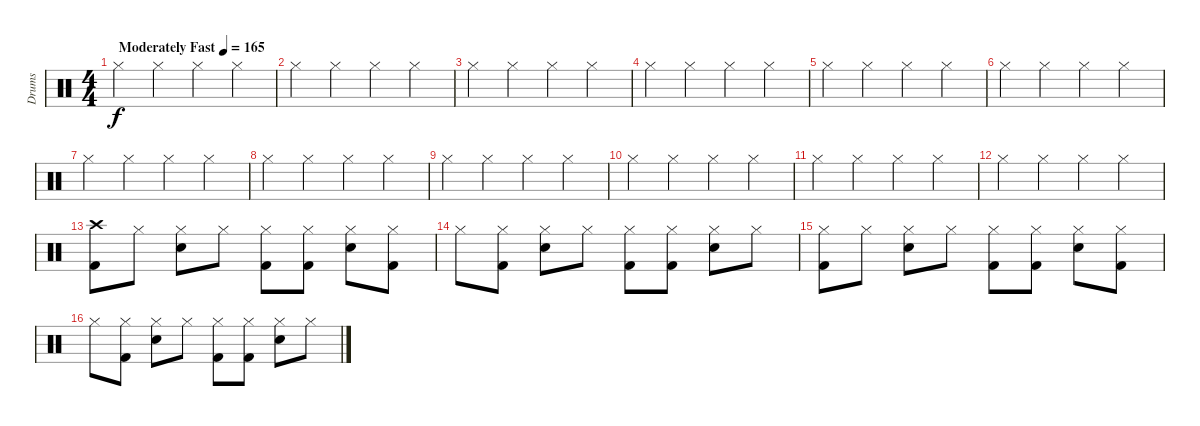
\track ("Drums" "Drums") {instrument percussion}
\staff {score}
\articulation defaults
\ts (4 4)
\tempo (165 "Moderately Fast")
\clef neutral
\ks c "Hi-Hat (closed)".4{dy f} "Hi-Hat (closed)".4 "Hi-Hat (closed)".4 "Hi-Hat (closed)".4
|
"Hi-Hat (closed)".4 "Hi-Hat (closed)".4 "Hi-Hat (closed)".4 "Hi-Hat (closed)".4 |
"Hi-Hat (closed)".4 "Hi-Hat (closed)".4 "Hi-Hat (closed)".4 "Hi-Hat (closed)".4 |
"Hi-Hat (closed)".4 "Hi-Hat (closed)".4 "Hi-Hat (closed)".4 "Hi-Hat (closed)".4 |
"Hi-Hat (closed)".4 "Hi-Hat (closed)".4 "Hi-Hat (closed)".4 "Hi-Hat (closed)".4 |
"Hi-Hat (closed)".4 "Hi-Hat (closed)".4 "Hi-Hat (closed)".4 "Hi-Hat (closed)".4 |
"Hi-Hat (closed)".4 "Hi-Hat (closed)".4 "Hi-Hat (closed)".4 "Hi-Hat (closed)".4 |
"Hi-Hat (closed)".4 "Hi-Hat (closed)".4 "Hi-Hat (closed)".4 "Hi-Hat (closed)".4 |
"Hi-Hat (closed)".4 "Hi-Hat (closed)".4 "Hi-Hat (closed)".4 "Hi-Hat (closed)".4 |
"Hi-Hat (closed)".4 "Hi-Hat (closed)".4 "Hi-Hat (closed)".4 "Hi-Hat (closed)".4 |
"Hi-Hat (closed)".4 "Hi-Hat (closed)".4 "Hi-Hat (closed)".4 "Hi-Hat (closed)".4 |
"Hi-Hat (closed)".4 "Hi-Hat (closed)".4 "Hi-Hat (closed)".4 "Hi-Hat (closed)".4 |
("Crash high (hit)" "Kick (hit) 2").8 "Hi-Hat (closed)".8 ("Hi-Hat (closed)" "Electric Snare (hit)").8 "Hi-Hat (closed)".8 ("Hi-Hat (closed)" "Kick (hit) 2").8 ("Hi-Hat (closed)" "Kick (hit) 2").8 ("Hi-Hat (closed)" "Electric Snare (hit)").8 ("Hi-Hat (closed)" "Kick (hit) 2").8 |
"Hi-Hat (closed)".8 ("Hi-Hat (closed)" "Kick (hit) 2").8 ("Hi-Hat (closed)" "Electric Snare (hit)").8 "Hi-Hat (closed)".8 ("Hi-Hat (closed)" "Kick (hit) 2").8 ("Hi-Hat (closed)" "Kick (hit) 2").8 ("Hi-Hat (closed)" "Electric Snare (hit)").8 "Hi-Hat (closed)".8 |
("Hi-Hat (closed)" "Kick (hit) 2").8 "Hi-Hat (closed)".8 ("Hi-Hat (closed)" "Electric Snare (hit)").8 "Hi-Hat (closed)".8 ("Hi-Hat (closed)" "Kick (hit) 2").8 ("Hi-Hat (closed)" "Kick (hit) 2").8 ("Hi-Hat (closed)" "Electric Snare (hit)").8 ("Hi-Hat (closed)" "Kick (hit) 2").8 |
"Hi-Hat (closed)".8 ("Hi-Hat (closed)" "Kick (hit) 2").8 ("Hi-Hat (closed)" "Electric Snare (hit)").8 "Hi-Hat (closed)".8 ("Hi-Hat (closed)" "Kick (hit) 2").8 ("Hi-Hat (closed)" "Kick (hit) 2").8 ("Hi-Hat (closed)" "Electric Snare (hit)").8 "Hi-Hat (closed)".8
